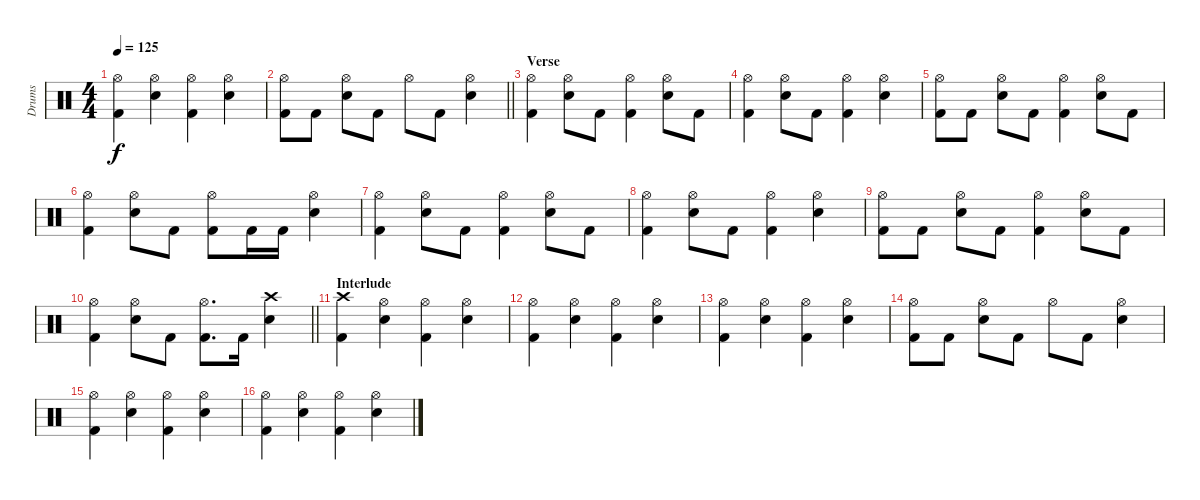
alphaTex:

\track ("Drums" "Drums") {instrument percussion}
\staff {score}
\articulation defaults
\ts (4 4)
\tempo 125
\clef neutral
\ks c
("Hi-Hat (open)" "Kick (hit) 2").4{dy f} ("Hi-Hat (open)" "Snare (hit) 2").4 ("Hi-Hat (open)" "Kick (hit) 2").4 ("Hi-Hat (open)" "Snare (hit) 2").4 |
\barLineRight lightlight
("Hi-Hat (open)" "Kick (hit) 2").8 "Kick (hit) 2".8 ("Hi-Hat (open)" "Snare (hit) 2").8 "Kick (hit) 2".8 "Hi-Hat (open)".8 "Kick (hit) 2".8 ("Hi-Hat (open)" "Snare (hit) 2").4 |
\section ("" "Verse")
("Hi-Hat (open)" "Kick (hit) 2").4 ("Hi-Hat (open)" "Snare (hit) 2").8 "Kick (hit) 2".8 ("Hi-Hat (open)" "Kick (hit) 2").4 ("Hi-Hat (open)" "Snare (hit) 2").8 "Kick (hit) 2".8 |
("Hi-Hat (open)" "Kick (hit) 2").4 ("Hi-Hat (open)" "Snare (hit) 2").8 "Kick (hit) 2".8 ("Hi-Hat (open)" "Kick (hit) 2").4 ("Hi-Hat (open)" "Snare (hit) 2").4 |
("Hi-Hat (open)" "Kick (hit) 2").8 "Kick (hit) 2".8 ("Hi-Hat (open)" "Snare (hit) 2").8 "Kick (hit) 2".8 ("Hi-Hat (open)" "Kick (hit) 2").4 ("Hi-Hat (open)" "Snare (hit) 2").8 "Kick (hit) 2".8 |
("Hi-Hat (open)" "Kick (hit) 2").4 ("Hi-Hat (open)" "Snare (hit) 2").8 "Kick (hit) 2".8 ("Hi-Hat (open)" "Kick (hit) 2").8 "Kick (hit) 2".16 "Kick (hit) 2".16 ("Hi-Hat (open)" "Snare (hit) 2").4 |
("Hi-Hat (open)" "Kick (hit) 2").4 ("Hi-Hat (open)" "Snare (hit) 2").8 "Kick (hit) 2".8 ("Hi-Hat (open)" "Kick (hit) 2").4 ("Hi-Hat (open)" "Snare (hit) 2").8 "Kick (hit) 2".8 |
("Hi-Hat (open)" "Kick (hit) 2").4 ("Hi-Hat (open)" "Snare (hit) 2").8 "Kick (hit) 2".8 ("Hi-Hat (open)" "Kick (hit) 2").4 ("Hi-Hat (open)" "Snare (hit) 2").4 |
("Hi-Hat (open)" "Kick (hit) 2").8 "Kick (hit) 2".8 ("Hi-Hat (open)" "Snare (hit) 2").8 "Kick (hit) 2".8 ("Hi-Hat (open)" "Kick (hit) 2").4 ("Hi-Hat (open)" "Snare (hit) 2").8 "Kick (hit) 2".8 |
\barLineRight lightlight
("Hi-Hat (open)" "Kick (hit) 2").4 ("Hi-Hat (open)" "Snare (hit) 2").8 "Kick (hit) 2".8 ("Hi-Hat (open)" "Kick (hit) 2").8{d} "Kick (hit) 2".16 ("Crash high (hit)" "Snare (hit) 2").4 |
\section ("" "Interlude")
("Crash high (hit)" "Kick (hit) 2").4 ("Hi-Hat (open)" "Snare (hit) 2").4 ("Hi-Hat (open)" "Kick (hit) 2").4 ("Hi-Hat (open)" "Snare (hit) 2").4 |
("Hi-Hat (open)" "Kick (hit) 2").4 ("Hi-Hat (open)" "Snare (hit) 2").4 ("Hi-Hat (open)" "Kick (hit) 2").4 ("Hi-Hat (open)" "Snare (hit) 2").4 |
("Hi-Hat (open)" "Kick (hit) 2").4 ("Hi-Hat (open)" "Snare (hit) 2").4 ("Hi-Hat (open)" "Kick (hit) 2").4 ("Hi-Hat (open)" "Snare (hit) 2").4 |
("Hi-Hat (open)" "Kick (hit) 2").8 "Kick (hit) 2".8 ("Hi-Hat (open)" "Snare (hit) 2").8 "Kick (hit) 2".8 "Hi-Hat (open)".8 "Kick (hit) 2".8 ("Hi-Hat (open)" "Snare (hit) 2").4 |
("Hi-Hat (open)" "Kick (hit) 2").4 ("Hi-Hat (open)" "Snare (hit) 2").4 ("Hi-Hat (open)" "Kick (hit) 2").4 ("Hi-Hat (open)" "Snare (hit) 2").4 |
("Hi-Hat (open)" "Kick (hit) 2").4 ("Hi-Hat (open)" "Snare (hit) 2").4 ("Hi-Hat (open)" "Kick (hit) 2").4 ("Hi-Hat (open)" "Snare (hit) 2").4
